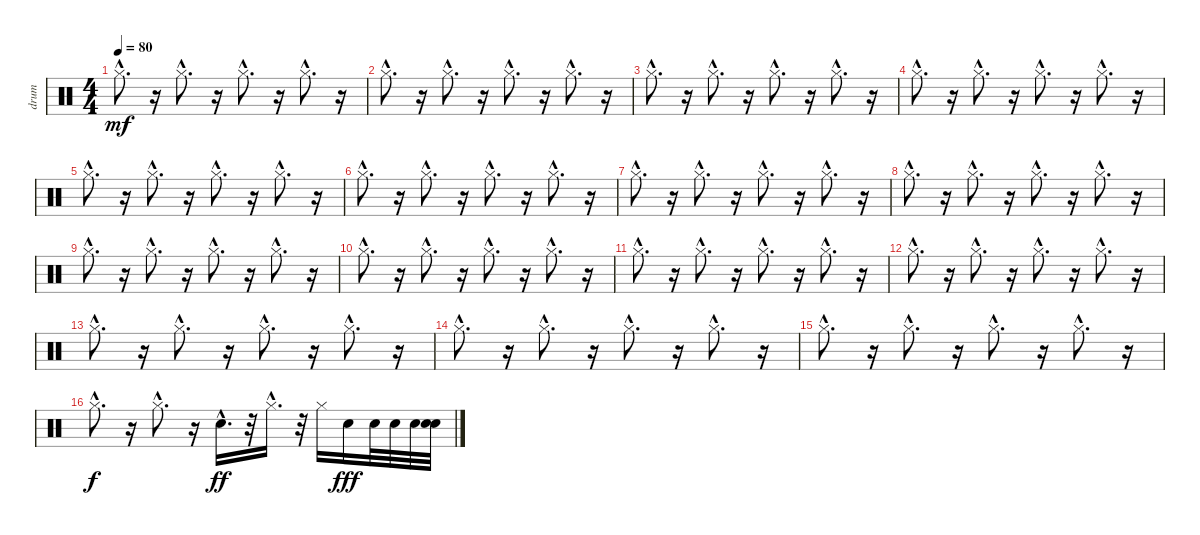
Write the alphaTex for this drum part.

\track ("drum" "drum") {instrument percussion}
\staff {score}
\articulation defaults
\ts (4 4)
\tempo 80
\clef neutral
\ks c "Hi-Hat (closed)"{hac}.8{d dy mf}
r.16 "Hi-Hat (closed)"{hac}.8{d} r.16 "Hi-Hat (closed)"{hac}.8{d} r.16 "Hi-Hat (closed)"{hac}.8{d} r.16 |
"Hi-Hat (closed)"{hac}.8{d} r.16 "Hi-Hat (closed)"{hac}.8{d} r.16 "Hi-Hat (closed)"{hac}.8{d} r.16 "Hi-Hat (closed)"{hac}.8{d} r.16 |
"Hi-Hat (closed)"{hac}.8{d} r.16 "Hi-Hat (closed)"{hac}.8{d} r.16 "Hi-Hat (closed)"{hac}.8{d} r.16 "Hi-Hat (closed)"{hac}.8{d} r.16 |
"Hi-Hat (closed)"{hac}.8{d} r.16 "Hi-Hat (closed)"{hac}.8{d} r.16 "Hi-Hat (closed)"{hac}.8{d} r.16 "Hi-Hat (closed)"{hac}.8{d} r.16 |
"Hi-Hat (closed)"{hac}.8{d} r.16 "Hi-Hat (closed)"{hac}.8{d} r.16 "Hi-Hat (closed)"{hac}.8{d} r.16 "Hi-Hat (closed)"{hac}.8{d} r.16 |
"Hi-Hat (closed)"{hac}.8{d} r.16 "Hi-Hat (closed)"{hac}.8{d} r.16 "Hi-Hat (closed)"{hac}.8{d} r.16 "Hi-Hat (closed)"{hac}.8{d} r.16 |
"Hi-Hat (closed)"{hac}.8{d} r.16 "Hi-Hat (closed)"{hac}.8{d} r.16 "Hi-Hat (closed)"{hac}.8{d} r.16 "Hi-Hat (closed)"{hac}.8{d} r.16 |
"Hi-Hat (closed)"{hac}.8{d} r.16 "Hi-Hat (closed)"{hac}.8{d} r.16 "Hi-Hat (closed)"{hac}.8{d} r.16 "Hi-Hat (closed)"{hac}.8{d} r.16 |
"Hi-Hat (closed)"{hac}.8{d} r.16 "Hi-Hat (closed)"{hac}.8{d} r.16 "Hi-Hat (closed)"{hac}.8{d} r.16 "Hi-Hat (closed)"{hac}.8{d} r.16 |
"Hi-Hat (closed)"{hac}.8{d} r.16 "Hi-Hat (closed)"{hac}.8{d} r.16 "Hi-Hat (closed)"{hac}.8{d} r.16 "Hi-Hat (closed)"{hac}.8{d} r.16 |
"Hi-Hat (closed)"{hac}.8{d} r.16 "Hi-Hat (closed)"{hac}.8{d} r.16 "Hi-Hat (closed)"{hac}.8{d} r.16 "Hi-Hat (closed)"{hac}.8{d} r.16 |
"Hi-Hat (closed)"{hac}.8{d} r.16 "Hi-Hat (closed)"{hac}.8{d} r.16 "Hi-Hat (closed)"{hac}.8{d} r.16 "Hi-Hat (closed)"{hac}.8{d} r.16 |
"Hi-Hat (closed)"{hac}.8{d} r.16 "Hi-Hat (closed)"{hac}.8{d} r.16 "Hi-Hat (closed)"{hac}.8{d} r.16 "Hi-Hat (closed)"{hac}.8{d} r.16 |
"Hi-Hat (closed)"{hac}.8{d} r.16 "Hi-Hat (closed)"{hac}.8{d} r.16 "Hi-Hat (closed)"{hac}.8{d} r.16 "Hi-Hat (closed)"{hac}.8{d} r.16 |
"Hi-Hat (closed)"{hac}.8{d} r.16 "Hi-Hat (closed)"{hac}.8{d} r.16 "Hi-Hat (closed)"{hac}.8{d} r.16 "Hi-Hat (closed)"{hac}.8{d} r.16 |
"Hi-Hat (closed)"{hac}.8{d dy f} r.16 "Hi-Hat (closed)"{hac}.8{d} r.16 "Electric Snare (hit)"{hac}.16{d dy ff} r.32 "Hi-Hat (closed)"{hac}.16{d} r.32 "Hi-Hat (closed)".16 "Electric Snare (hit)".16{dy fff} "Snare (hit) 2".32 "Electric Snare (hit)".32 "Snare (hit) 2".32 ("Electric Snare (hit)" "Snare (hit) 2").32
